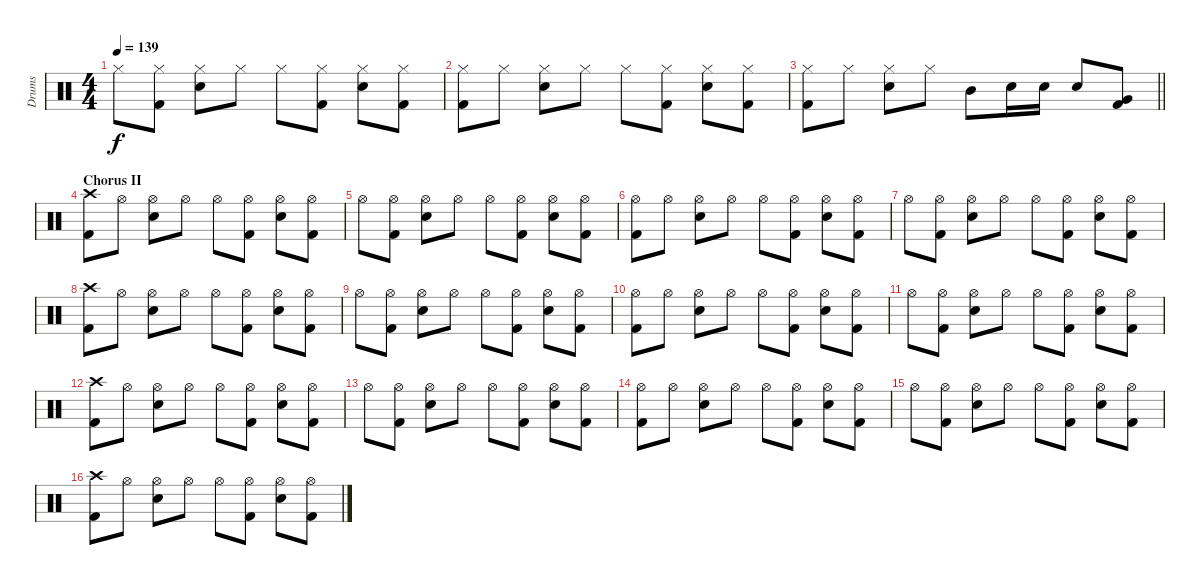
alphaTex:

\track ("Drums" "Drums") {instrument percussion}
\staff {score}
\articulation defaults
\ts (4 4)
\tempo 139
\clef neutral
\ks c "Hi-Hat (closed)".8{dy f}
("Hi-Hat (closed)" "Kick (hit) 2").8 ("Hi-Hat (closed)" "Snare (hit) 2").8 "Hi-Hat (closed)".8 "Hi-Hat (closed)".8 ("Hi-Hat (closed)" "Kick (hit) 2").8 ("Hi-Hat (closed)" "Snare (hit) 2").8 ("Hi-Hat (closed)" "Kick (hit) 2").8 |
("Hi-Hat (closed)" "Kick (hit) 2").8 "Hi-Hat (closed)".8 ("Hi-Hat (closed)" "Snare (hit) 2").8 "Hi-Hat (closed)".8 "Hi-Hat (closed)".8 ("Hi-Hat (closed)" "Kick (hit) 2").8 ("Hi-Hat (closed)" "Snare (hit) 2").8 ("Hi-Hat (closed)" "Kick (hit) 2").8 |
\barLineRight lightlight
("Hi-Hat (closed)" "Kick (hit) 2").8 "Hi-Hat (closed)".8 ("Hi-Hat (closed)" "Snare (hit) 2").8 "Hi-Hat (closed)".8 "Mid Tom (hit)".8 "Snare (hit) 2".16 "Snare (hit) 2".16 "Snare (hit) 2".8 ("Very Low Tom (hit)" "Kick (hit) 2").8 |
\section ("" "Chorus II")
("Crash high (hit)" "Kick (hit) 2").8 "Hi-Hat (open)".8 ("Hi-Hat (open)" "Snare (hit) 2").8 "Hi-Hat (open)".8 "Hi-Hat (open)".8 ("Hi-Hat (open)" "Kick (hit) 2").8 ("Hi-Hat (open)" "Snare (hit) 2").8 ("Hi-Hat (open)" "Kick (hit) 2").8 |
"Hi-Hat (open)".8 ("Hi-Hat (open)" "Kick (hit) 2").8 ("Hi-Hat (open)" "Snare (hit) 2").8 "Hi-Hat (open)".8 "Hi-Hat (open)".8 ("Hi-Hat (open)" "Kick (hit) 2").8 ("Hi-Hat (open)" "Snare (hit) 2").8 ("Hi-Hat (open)" "Kick (hit) 2").8 |
("Hi-Hat (open)" "Kick (hit) 2").8 "Hi-Hat (open)".8 ("Hi-Hat (open)" "Snare (hit) 2").8 "Hi-Hat (open)".8 "Hi-Hat (open)".8 ("Hi-Hat (open)" "Kick (hit) 2").8 ("Hi-Hat (open)" "Snare (hit) 2").8 ("Hi-Hat (open)" "Kick (hit) 2").8 |
"Hi-Hat (open)".8 ("Hi-Hat (open)" "Kick (hit) 2").8 ("Hi-Hat (open)" "Snare (hit) 2").8 "Hi-Hat (open)".8 "Hi-Hat (open)".8 ("Hi-Hat (open)" "Kick (hit) 2").8 ("Hi-Hat (open)" "Snare (hit) 2").8 ("Hi-Hat (open)" "Kick (hit) 2").8 |
("Crash high (hit)" "Kick (hit) 2").8 "Hi-Hat (open)".8 ("Hi-Hat (open)" "Snare (hit) 2").8 "Hi-Hat (open)".8 "Hi-Hat (open)".8 ("Hi-Hat (open)" "Kick (hit) 2").8 ("Hi-Hat (open)" "Snare (hit) 2").8 ("Hi-Hat (open)" "Kick (hit) 2").8 |
"Hi-Hat (open)".8 ("Hi-Hat (open)" "Kick (hit) 2").8 ("Hi-Hat (open)" "Snare (hit) 2").8 "Hi-Hat (open)".8 "Hi-Hat (open)".8 ("Hi-Hat (open)" "Kick (hit) 2").8 ("Hi-Hat (open)" "Snare (hit) 2").8 ("Hi-Hat (open)" "Kick (hit) 2").8 |
("Hi-Hat (open)" "Kick (hit) 2").8 "Hi-Hat (open)".8 ("Hi-Hat (open)" "Snare (hit) 2").8 "Hi-Hat (open)".8 "Hi-Hat (open)".8 ("Hi-Hat (open)" "Kick (hit) 2").8 ("Hi-Hat (open)" "Snare (hit) 2").8 ("Hi-Hat (open)" "Kick (hit) 2").8 |
"Hi-Hat (open)".8 ("Hi-Hat (open)" "Kick (hit) 2").8 ("Hi-Hat (open)" "Snare (hit) 2").8 "Hi-Hat (open)".8 "Hi-Hat (open)".8 ("Hi-Hat (open)" "Kick (hit) 2").8 ("Hi-Hat (open)" "Snare (hit) 2").8 ("Hi-Hat (open)" "Kick (hit) 2").8 |
("Crash high (hit)" "Kick (hit) 2").8 "Hi-Hat (open)".8 ("Hi-Hat (open)" "Snare (hit) 2").8 "Hi-Hat (open)".8 "Hi-Hat (open)".8 ("Hi-Hat (open)" "Kick (hit) 2").8 ("Hi-Hat (open)" "Snare (hit) 2").8 ("Hi-Hat (open)" "Kick (hit) 2").8 |
"Hi-Hat (open)".8 ("Hi-Hat (open)" "Kick (hit) 2").8 ("Hi-Hat (open)" "Snare (hit) 2").8 "Hi-Hat (open)".8 "Hi-Hat (open)".8 ("Hi-Hat (open)" "Kick (hit) 2").8 ("Hi-Hat (open)" "Snare (hit) 2").8 ("Hi-Hat (open)" "Kick (hit) 2").8 |
("Hi-Hat (open)" "Kick (hit) 2").8 "Hi-Hat (open)".8 ("Hi-Hat (open)" "Snare (hit) 2").8 "Hi-Hat (open)".8 "Hi-Hat (open)".8 ("Hi-Hat (open)" "Kick (hit) 2").8 ("Hi-Hat (open)" "Snare (hit) 2").8 ("Hi-Hat (open)" "Kick (hit) 2").8 |
"Hi-Hat (open)".8 ("Hi-Hat (open)" "Kick (hit) 2").8 ("Hi-Hat (open)" "Snare (hit) 2").8 "Hi-Hat (open)".8 "Hi-Hat (open)".8 ("Hi-Hat (open)" "Kick (hit) 2").8 ("Hi-Hat (open)" "Snare (hit) 2").8 ("Hi-Hat (open)" "Kick (hit) 2").8 |
("Crash high (hit)" "Kick (hit) 2").8 "Hi-Hat (open)".8 ("Hi-Hat (open)" "Snare (hit) 2").8 "Hi-Hat (open)".8 "Hi-Hat (open)".8 ("Hi-Hat (open)" "Kick (hit) 2").8 ("Hi-Hat (open)" "Snare (hit) 2").8 ("Hi-Hat (open)" "Kick (hit) 2").8
